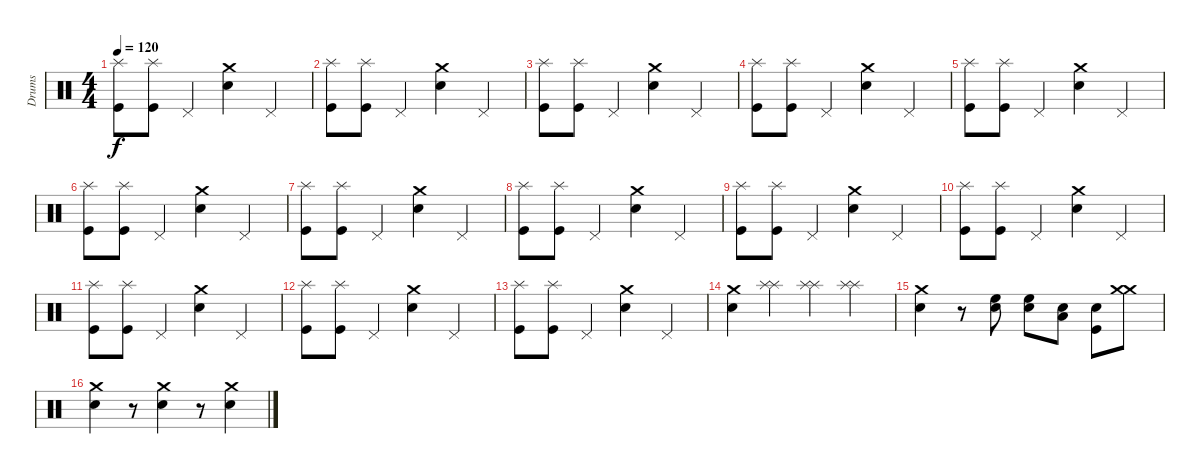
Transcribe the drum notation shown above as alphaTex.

\track ("Drums" "Drums") {instrument percussion}
\staff {score}
\articulation defaults
\ts (4 4)
\tempo 120
\clef neutral
\ks c
("Splash (hit)" "Kick (hit)").8{dy f} ("Splash (hit)" "Kick (hit)").8 "Pedal Hi-Hat (hit)".4 ("Crash medium (hit)" "Snare (hit) 2").4 "Pedal Hi-Hat (hit)".4 |
("Splash (hit)" "Kick (hit)").8 ("Splash (hit)" "Kick (hit)").8 "Pedal Hi-Hat (hit)".4 ("Crash medium (hit)" "Snare (hit) 2").4 "Pedal Hi-Hat (hit)".4 |
("Splash (hit)" "Kick (hit)").8 ("Splash (hit)" "Kick (hit)").8 "Pedal Hi-Hat (hit)".4 ("Crash medium (hit)" "Snare (hit) 2").4 "Pedal Hi-Hat (hit)".4 |
("Splash (hit)" "Kick (hit)").8 ("Splash (hit)" "Kick (hit)").8 "Pedal Hi-Hat (hit)".4 ("Crash medium (hit)" "Snare (hit) 2").4 "Pedal Hi-Hat (hit)".4 |
("Splash (hit)" "Kick (hit)").8 ("Splash (hit)" "Kick (hit)").8 "Pedal Hi-Hat (hit)".4 ("Crash medium (hit)" "Snare (hit) 2").4 "Pedal Hi-Hat (hit)".4 |
("Splash (hit)" "Kick (hit)").8 ("Splash (hit)" "Kick (hit)").8 "Pedal Hi-Hat (hit)".4 ("Crash medium (hit)" "Snare (hit) 2").4 "Pedal Hi-Hat (hit)".4 |
("Splash (hit)" "Kick (hit)").8 ("Splash (hit)" "Kick (hit)").8 "Pedal Hi-Hat (hit)".4 ("Crash medium (hit)" "Snare (hit) 2").4 "Pedal Hi-Hat (hit)".4 |
("Splash (hit)" "Kick (hit)").8 ("Splash (hit)" "Kick (hit)").8 "Pedal Hi-Hat (hit)".4 ("Crash medium (hit)" "Snare (hit) 2").4 "Pedal Hi-Hat (hit)".4 |
("Splash (hit)" "Kick (hit)").8 ("Splash (hit)" "Kick (hit)").8 "Pedal Hi-Hat (hit)".4 ("Crash medium (hit)" "Snare (hit) 2").4 "Pedal Hi-Hat (hit)".4 |
("Splash (hit)" "Kick (hit)").8 ("Splash (hit)" "Kick (hit)").8 "Pedal Hi-Hat (hit)".4 ("Crash medium (hit)" "Snare (hit) 2").4 "Pedal Hi-Hat (hit)".4 |
("Splash (hit)" "Kick (hit)").8 ("Splash (hit)" "Kick (hit)").8 "Pedal Hi-Hat (hit)".4 ("Crash medium (hit)" "Snare (hit) 2").4 "Pedal Hi-Hat (hit)".4 |
("Splash (hit)" "Kick (hit)").8 ("Splash (hit)" "Kick (hit)").8 "Pedal Hi-Hat (hit)".4 ("Crash medium (hit)" "Snare (hit) 2").4 "Pedal Hi-Hat (hit)".4 |
("Splash (hit)" "Kick (hit)").8 ("Splash (hit)" "Kick (hit)").8 "Pedal Hi-Hat (hit)".4 ("Crash medium (hit)" "Snare (hit) 2").4 "Pedal Hi-Hat (hit)".4 |
("Snare (hit) 2" "Crash medium (hit)").4 ("Splash (hit)" "Splash (hit)").4 ("Splash (hit)" "Splash (hit)").4 ("Splash (hit)" "Splash (hit)").4 |
("Snare (hit) 2" "Crash medium (hit)").4 r.8 ("High Floor Tom (hit)" "Snare (hit)").8 ("High Floor Tom (hit)" "Snare (hit)").8 ("Low Floor Tom (hit)" "Snare (hit)").8 ("Snare (hit) 2" "Kick (hit)").8 ("Crash medium (hit)" "Crash medium (hit)").8 |
("Crash medium (hit)" "Snare (hit) 2").4 r.8 ("Crash medium (hit)" "Snare (hit) 2").4 r.8 ("Crash medium (hit)" "Snare (hit) 2").4
